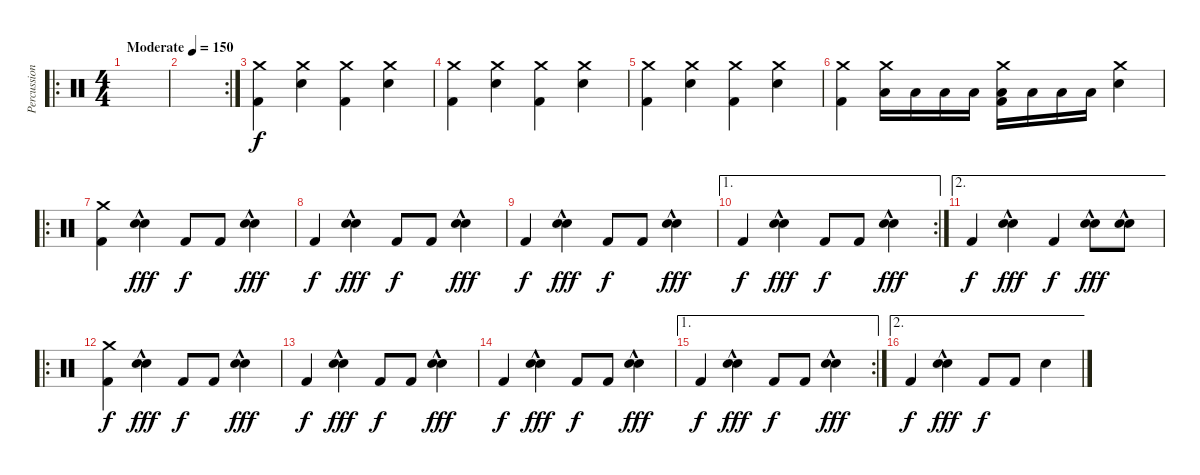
\track ("Percussion" "Percussion") {instrument percussion}
\staff {score}
\articulation defaults
\ro
\ts (4 4)
\tempo (150 "Moderate")
\clef neutral
\ks c
|
\rc 2
|
("Crash medium (hit)" "Kick (hit) 2").4 ("Crash medium (hit)" "Snare (hit) 2").4 ("Crash medium (hit)" "Kick (hit) 2").4 ("Crash medium (hit)" "Snare (hit) 2").4 |
("Crash medium (hit)" "Kick (hit) 2").4 ("Crash medium (hit)" "Snare (hit) 2").4 ("Crash medium (hit)" "Kick (hit) 2").4 ("Crash medium (hit)" "Snare (hit) 2").4 |
("Crash medium (hit)" "Kick (hit) 2").4 ("Crash medium (hit)" "Snare (hit) 2").4 ("Crash medium (hit)" "Kick (hit) 2").4 ("Crash medium (hit)" "Snare (hit) 2").4 |
("Crash medium (hit)" "Kick (hit) 2").4 ("Crash medium (hit)" "Low Tom (hit)").16 "Low Tom (hit)".16 "Low Tom (hit)".16 "Low Tom (hit)".16 ("Crash medium (hit)" "Low Tom (hit)" "Kick (hit) 2").16 "Low Tom (hit)".16 "Low Tom (hit)".16 "Low Tom (hit)".16 ("Crash medium (hit)" "Snare (hit) 2").4 |
\ro
("Crash medium (hit)" "Kick (hit) 2").4 ("Hand Clap (hit)"{hac} "Snare (hit) 2").4{dy fff} "Kick (hit) 2".8{dy f} "Kick (hit) 2".8 ("Hand Clap (hit)"{hac} "Snare (hit) 2").4{dy fff} |
"Kick (hit) 2".4{dy f} ("Hand Clap (hit)"{hac} "Snare (hit) 2").4{dy fff} "Kick (hit) 2".8{dy f} "Kick (hit) 2".8 ("Hand Clap (hit)"{hac} "Snare (hit) 2").4{dy fff} |
"Kick (hit) 2".4{dy f} ("Hand Clap (hit)"{hac} "Snare (hit) 2").4{dy fff} "Kick (hit) 2".8{dy f} "Kick (hit) 2".8 ("Hand Clap (hit)"{hac} "Snare (hit) 2").4{dy fff} |
\ae 1
\rc 2 "Kick (hit) 2".4{dy f}
("Hand Clap (hit)"{hac} "Snare (hit) 2").4{dy fff} "Kick (hit) 2".8{dy f} "Kick (hit) 2".8 ("Hand Clap (hit)"{hac} "Snare (hit) 2").4{dy fff} |
\ae 2 "Kick (hit) 2".4{dy f}
("Hand Clap (hit)"{hac} "Snare (hit) 2").4{dy fff} "Kick (hit) 2".4{dy f} ("Hand Clap (hit)"{hac} "Snare (hit) 2").8{dy fff} ("Hand Clap (hit)"{hac} "Snare (hit) 2").8 |
\ro
("Crash medium (hit)" "Kick (hit) 2").4{dy f} ("Hand Clap (hit)"{hac} "Snare (hit) 2").4{dy fff} "Kick (hit) 2".8{dy f} "Kick (hit) 2".8 ("Hand Clap (hit)"{hac} "Snare (hit) 2").4{dy fff} |
"Kick (hit) 2".4{dy f} ("Hand Clap (hit)"{hac} "Snare (hit) 2").4{dy fff} "Kick (hit) 2".8{dy f} "Kick (hit) 2".8 ("Hand Clap (hit)"{hac} "Snare (hit) 2").4{dy fff} |
"Kick (hit) 2".4{dy f} ("Hand Clap (hit)"{hac} "Snare (hit) 2").4{dy fff} "Kick (hit) 2".8{dy f} "Kick (hit) 2".8 ("Hand Clap (hit)"{hac} "Snare (hit) 2").4{dy fff} |
\ae 1
\rc 2 "Kick (hit) 2".4{dy f}
("Hand Clap (hit)"{hac} "Snare (hit) 2").4{dy fff} "Kick (hit) 2".8{dy f} "Kick (hit) 2".8 ("Hand Clap (hit)"{hac} "Snare (hit) 2").4{dy fff} |
\ae 2 "Kick (hit) 2".4{dy f}
("Hand Clap (hit)"{hac} "Snare (hit) 2").4{dy fff} "Kick (hit) 2".8{dy f} "Kick (hit) 2".8 "Snare (hit) 2".4
